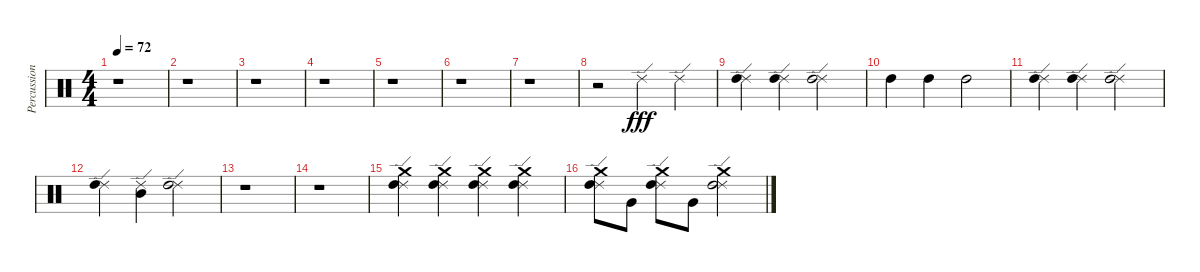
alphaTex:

\track ("Percussion" "Percussion") {instrument percussion}
\staff {score}
\articulation defaults
\ts (4 4)
\tempo 72
\clef neutral
\ks c
r.1{dy fff} |
r.1 |
r.1 |
r.1 |
r.1 |
r.1 |
r.1 |
r.2 "Ride (edge) 2".4 "Ride (edge) 2".4 |
("Ride (edge) 2" "High Tom (hit)").4 ("Ride (edge) 2" "High Tom (hit)").4 ("Ride (edge) 2" "High Tom (hit)").2 |
"High Tom (hit)".4 "High Tom (hit)".4 "High Tom (hit)".2 |
("Ride (edge) 2" "High Tom (hit)").4 ("Ride (edge) 2" "High Tom (hit)").4 ("Ride (edge) 2" "High Tom (hit)").2 |
("Ride (edge) 2" "High Tom (hit)").4 ("Ride (edge) 2" "Mid Tom (hit)").4 ("Ride (edge) 2" "High Tom (hit)").2 |
r.1 |
r.1 |
("Ride (edge) 2" "Crash medium (hit)" "High Tom (hit)").4 ("Ride (edge) 2" "Crash medium (hit)" "High Tom (hit)").4 ("Ride (edge) 2" "Crash medium (hit)" "High Tom (hit)").4 ("Ride (edge) 2" "Crash medium (hit)" "High Tom (hit)").4 |
("Ride (edge) 2" "Crash medium (hit)" "High Tom (hit)").8 "Very Low Tom (hit)".8 ("Ride (edge) 2" "Crash medium (hit)" "High Tom (hit)").8 "Very Low Tom (hit)".8 ("Ride (edge) 2" "Crash medium (hit)" "High Tom (hit)").2
